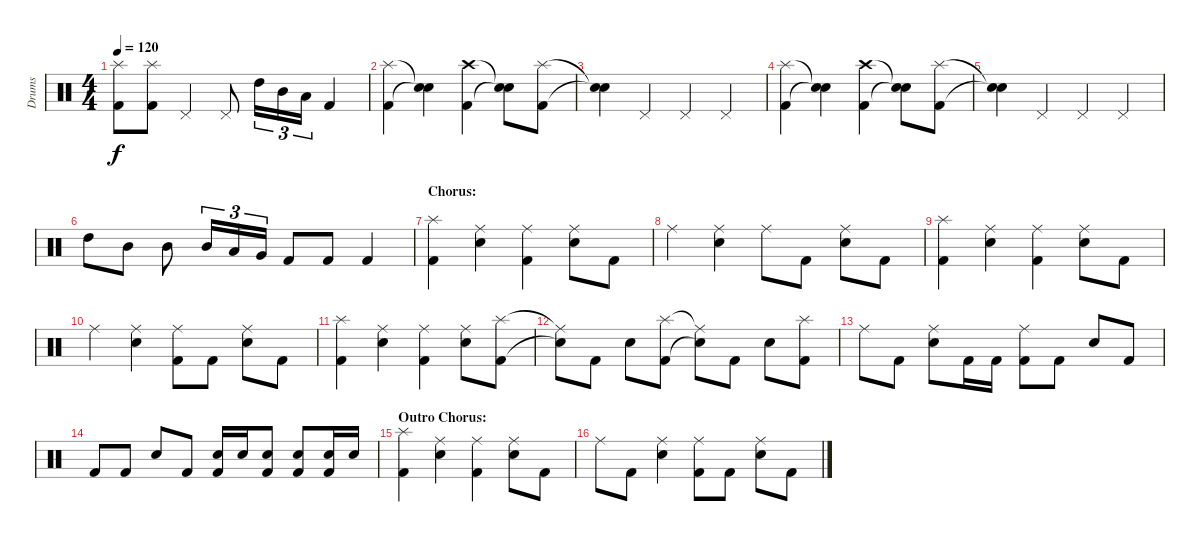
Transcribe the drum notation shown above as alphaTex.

\track ("Drums" "Drums") {instrument percussion}
\staff {score}
\articulation defaults
\ts (4 4)
\tempo 120
\clef neutral
\ks c
("Splash (hit)" "Kick (hit) 2").8{dy f} ("Splash (hit)" "Kick (hit) 2").8 "Pedal Hi-Hat (hit)".4 "Pedal Hi-Hat (hit)".8 "High Tom (hit)".16{tu (3 2)} "Mid Tom (hit)".16{tu (3 2)} "Low Tom (hit)".16{tu (3 2)} "Kick (hit) 2".4 |
("Splash (hit)" "Kick (hit) 2").4 ("Snare (hit)"{t} "Snare (hit)"{t}).4 ("Crash high (hit)" "Kick (hit) 2").4 ("Snare (hit)"{t} "Snare (hit)"{t}).8 ("Splash (hit)" "Kick (hit) 2").8 |
("Snare (hit)"{t} "Snare (hit)"{t}).4 "Pedal Hi-Hat (hit)".4 "Pedal Hi-Hat (hit)".4 "Pedal Hi-Hat (hit)".4 |
("Splash (hit)" "Kick (hit) 2").4 ("Snare (hit)"{t} "Snare (hit)"{t}).4 ("Crash high (hit)" "Kick (hit) 2").4 ("Snare (hit)"{t} "Snare (hit)"{t}).8 ("Splash (hit)" "Kick (hit) 2").8 |
("Snare (hit)"{t} "Snare (hit)"{t}).4 "Pedal Hi-Hat (hit)".4 "Pedal Hi-Hat (hit)".4 "Pedal Hi-Hat (hit)".4 |
"High Tom (hit)".8 "Mid Tom (hit)".8 "Mid Tom (hit)".8 "Mid Tom (hit)".16{tu (3 2)} "Low Tom (hit)".16{tu (3 2)} "Very Low Tom (hit)".16{tu (3 2)} "Kick (hit) 2".8 "Kick (hit) 2".8 "Kick (hit) 2".4 |
\section ("" "Chorus:")
("Splash (hit)" "Kick (hit) 2").4 ("Ride (middle)" "Electric Snare (hit)").4 ("Ride (middle)" "Kick (hit) 2").4 ("Ride (middle)" "Electric Snare (hit)").8 "Kick (hit) 2".8 |
"Ride (middle)".4 ("Ride (middle)" "Electric Snare (hit)").4 "Ride (middle)".8 "Kick (hit) 2".8 ("Ride (middle)" "Electric Snare (hit)").8 "Kick (hit) 2".8 |
("Splash (hit)" "Kick (hit) 2").4 ("Ride (middle)" "Electric Snare (hit)").4 ("Ride (middle)" "Kick (hit) 2").4 ("Ride (middle)" "Electric Snare (hit)").8 "Kick (hit) 2".8 |
"Ride (middle)".4 ("Ride (middle)" "Electric Snare (hit)").4 ("Ride (middle)" "Kick (hit) 2").8 "Kick (hit) 2".8 ("Ride (middle)" "Electric Snare (hit)").8 "Kick (hit) 2".8 |
("Splash (hit)" "Kick (hit) 2").4 ("Ride (middle)" "Electric Snare (hit)").4 ("Ride (middle)" "Kick (hit) 2").4 ("Ride (middle)" "Electric Snare (hit)").8 ("Splash (hit)" "Kick (hit) 2").8 |
("Ride (middle)"{t} "Snare (hit)"{t}).8 "Kick (hit) 2".8 "Electric Snare (hit)".8 ("Splash (hit)" "Kick (hit) 2").8 ("Ride (middle)"{t} "Snare (hit)"{t}).8 "Kick (hit) 2".8 "Electric Snare (hit)".8 ("Splash (hit)" "Kick (hit) 2").8 |
"Ride (middle)".8 "Kick (hit) 2".8 ("Ride (middle)" "Electric Snare (hit)").8 "Kick (hit) 2".16 "Kick (hit) 2".16 ("Ride (middle)" "Kick (hit) 2").8 "Kick (hit) 2".8 "Electric Snare (hit)".8 "Kick (hit) 2".8 |
"Kick (hit) 2".8 "Kick (hit) 2".8 "Electric Snare (hit)".8 "Kick (hit) 2".8 ("Electric Snare (hit)" "Kick (hit) 2").16 "Electric Snare (hit)".16 ("Electric Snare (hit)" "Kick (hit) 2").8 ("Electric Snare (hit)" "Kick (hit) 2").8 ("Electric Snare (hit)" "Kick (hit) 2").16 "Electric Snare (hit)".16 |
\section ("" "Outro Chorus:")
("Splash (hit)" "Kick (hit) 2").4 ("Ride (middle)" "Electric Snare (hit)").4 ("Ride (middle)" "Kick (hit) 2").4 ("Ride (middle)" "Electric Snare (hit)").8 "Kick (hit) 2".8 |
"Ride (middle)".8 "Kick (hit) 2".8 ("Ride (middle)" "Electric Snare (hit)").4 ("Ride (middle)" "Kick (hit) 2").8 "Kick (hit) 2".8 ("Ride (middle)" "Electric Snare (hit)").8 "Kick (hit) 2".8
